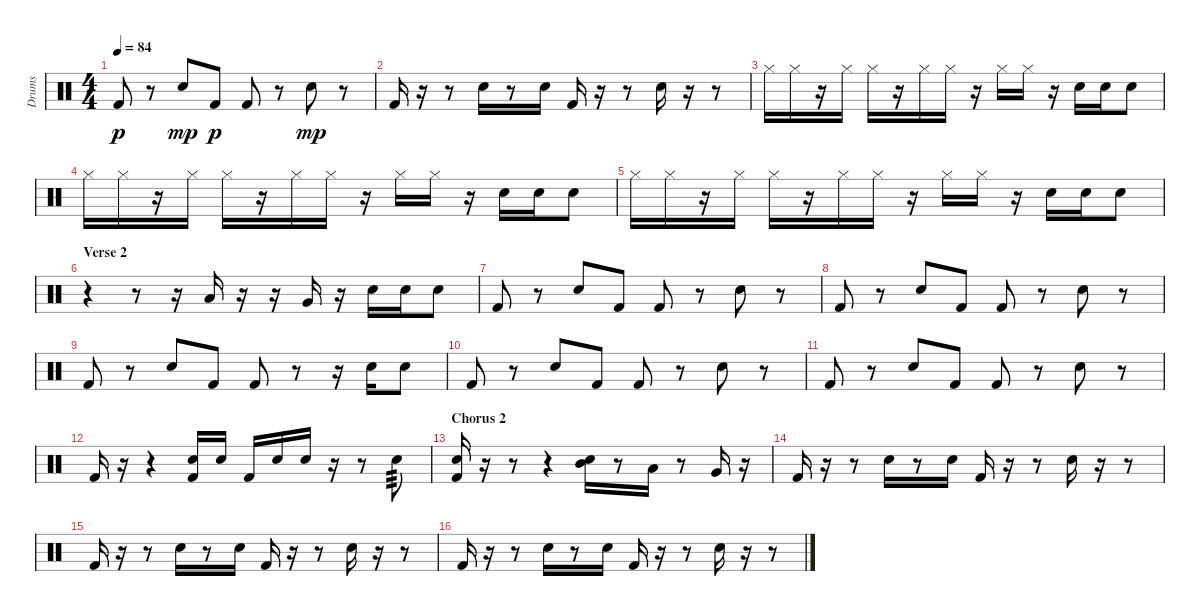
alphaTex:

\track ("Drums" "Drums") {instrument percussion}
\staff {score}
\articulation defaults
\ts (4 4)
\tempo 84
\clef neutral
\ks c "Kick (hit) 2".8{dy p}
r.8 "Snare (hit) 2".8{dy mp} "Kick (hit) 2".8{dy p} "Kick (hit) 2".8 r.8 "Snare (hit) 2".8{dy mp} r.8 |
"Kick (hit) 2".16 r.16 r.8 "Snare (hit) 2".16 r.8 "Snare (hit) 2".16 "Kick (hit) 2".16 r.16 r.8 "Snare (hit) 2".16 r.16 r.8 |
"Hi-Hat (closed)".16 "Hi-Hat (closed)".16 r.16 "Hi-Hat (closed)".16 "Hi-Hat (closed)".16 r.16 "Hi-Hat (closed)".16 "Hi-Hat (closed)".16 r.16 "Hi-Hat (closed)".16 "Hi-Hat (closed)".16 r.16 "Snare (hit) 2".16 "Snare (hit) 2".16 "Snare (hit) 2".8 |
"Hi-Hat (closed)".16 "Hi-Hat (closed)".16 r.16 "Hi-Hat (closed)".16 "Hi-Hat (closed)".16 r.16 "Hi-Hat (closed)".16 "Hi-Hat (closed)".16 r.16 "Hi-Hat (closed)".16 "Hi-Hat (closed)".16 r.16 "Snare (hit) 2".16 "Snare (hit) 2".16 "Snare (hit) 2".8 |
"Hi-Hat (closed)".16 "Hi-Hat (closed)".16 r.16 "Hi-Hat (closed)".16 "Hi-Hat (closed)".16 r.16 "Hi-Hat (closed)".16 "Hi-Hat (closed)".16 r.16 "Hi-Hat (closed)".16 "Hi-Hat (closed)".16 r.16 "Snare (hit) 2".16 "Snare (hit) 2".16 "Snare (hit) 2".8 |
\section ("" "Verse 2")
r.4 r.8 r.16 "Low Tom (hit)".16 r.16 r.16 "Very Low Tom (hit)".16 r.16 "Snare (hit) 2".16 "Snare (hit) 2".16 "Snare (hit) 2".8 |
"Kick (hit) 2".8 r.8 "Snare (hit) 2".8 "Kick (hit) 2".8 "Kick (hit) 2".8 r.8 "Snare (hit) 2".8 r.8 |
"Kick (hit) 2".8 r.8 "Snare (hit) 2".8 "Kick (hit) 2".8 "Kick (hit) 2".8 r.8 "Snare (hit) 2".8 r.8 |
"Kick (hit) 2".8 r.8 "Snare (hit) 2".8 "Kick (hit) 2".8 "Kick (hit) 2".8 r.8 r.16 "Snare (hit) 2".16 "Snare (hit) 2".8 |
"Kick (hit) 2".8 r.8 "Snare (hit) 2".8 "Kick (hit) 2".8 "Kick (hit) 2".8 r.8 "Snare (hit) 2".8 r.8 |
"Kick (hit) 2".8 r.8 "Snare (hit) 2".8 "Kick (hit) 2".8 "Kick (hit) 2".8 r.8 "Snare (hit) 2".8 r.8 |
"Kick (hit) 2".16 r.16 r.4 ("Snare (hit) 2" "Kick (hit) 2").16 "Snare (hit) 2".16 "Kick (hit) 2".16 "Snare (hit) 2".16 "Snare (hit) 2".16 r.16 r.8 "Snare (hit) 2".8{tp 3} |
\section ("" "Chorus 2")
("Snare (hit) 2" "Kick (hit) 2").16 r.16 r.8 r.4 ("Mid Tom (hit)" "Snare (hit) 2").16 r.8 "Low Tom (hit)".16 r.8 "Very Low Tom (hit)".16 r.16 |
"Kick (hit) 2".16 r.16 r.8 "Snare (hit) 2".16 r.8 "Snare (hit) 2".16 "Kick (hit) 2".16 r.16 r.8 "Snare (hit) 2".16 r.16 r.8 |
"Kick (hit) 2".16 r.16 r.8 "Snare (hit) 2".16 r.8 "Snare (hit) 2".16 "Kick (hit) 2".16 r.16 r.8 "Snare (hit) 2".16 r.16 r.8 |
"Kick (hit) 2".16 r.16 r.8 "Snare (hit) 2".16 r.8 "Snare (hit) 2".16 "Kick (hit) 2".16 r.16 r.8 "Snare (hit) 2".16 r.16 r.8
